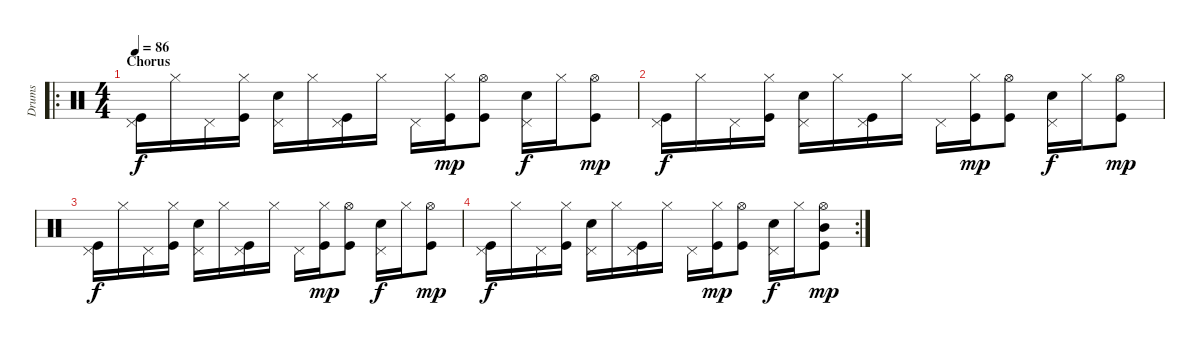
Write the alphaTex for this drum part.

\track ("Drums" "Drums") {instrument percussion}
\staff {score}
\articulation defaults
\ro
\ts (4 4)
\section ("" "Chorus")
\tempo 86
\clef neutral
\ks c
("Pedal Hi-Hat (hit)" "Kick (hit)").16{dy f} "Hi-Hat (closed)".16 "Pedal Hi-Hat (hit)".16 ("Hi-Hat (closed)" "Kick (hit)").16 ("Pedal Hi-Hat (hit)" "Electric Snare (hit)").16 "Hi-Hat (closed)".16 ("Pedal Hi-Hat (hit)" "Kick (hit)").16 "Hi-Hat (closed)".16 "Pedal Hi-Hat (hit)".16 ("Hi-Hat (closed)" "Kick (hit)").16{dy mp} ("Hi-Hat (open)" "Kick (hit)").8 ("Pedal Hi-Hat (hit)" "Electric Snare (hit)").16{dy f} "Hi-Hat (closed)".16 ("Hi-Hat (open)" "Kick (hit)").8{dy mp} |
("Pedal Hi-Hat (hit)" "Kick (hit)").16{dy f} "Hi-Hat (closed)".16 "Pedal Hi-Hat (hit)".16 ("Hi-Hat (closed)" "Kick (hit)").16 ("Pedal Hi-Hat (hit)" "Electric Snare (hit)").16 "Hi-Hat (closed)".16 ("Pedal Hi-Hat (hit)" "Kick (hit)").16 "Hi-Hat (closed)".16 "Pedal Hi-Hat (hit)".16 ("Hi-Hat (closed)" "Kick (hit)").16{dy mp} ("Hi-Hat (open)" "Kick (hit)").8 ("Pedal Hi-Hat (hit)" "Electric Snare (hit)").16{dy f} "Hi-Hat (closed)".16 ("Hi-Hat (open)" "Kick (hit)").8{dy mp} |
("Pedal Hi-Hat (hit)" "Kick (hit)").16{dy f} "Hi-Hat (closed)".16 "Pedal Hi-Hat (hit)".16 ("Hi-Hat (closed)" "Kick (hit)").16 ("Pedal Hi-Hat (hit)" "Electric Snare (hit)").16 "Hi-Hat (closed)".16 ("Pedal Hi-Hat (hit)" "Kick (hit)").16 "Hi-Hat (closed)".16 "Pedal Hi-Hat (hit)".16 ("Hi-Hat (closed)" "Kick (hit)").16{dy mp} ("Hi-Hat (open)" "Kick (hit)").8 ("Pedal Hi-Hat (hit)" "Electric Snare (hit)").16{dy f} "Hi-Hat (closed)".16 ("Hi-Hat (open)" "Kick (hit)").8{dy mp} |
\rc 2
("Pedal Hi-Hat (hit)" "Kick (hit)").16{dy f} "Hi-Hat (closed)".16 "Pedal Hi-Hat (hit)".16 ("Hi-Hat (closed)" "Kick (hit)").16 ("Pedal Hi-Hat (hit)" "Electric Snare (hit)").16 "Hi-Hat (closed)".16 ("Pedal Hi-Hat (hit)" "Kick (hit)").16 "Hi-Hat (closed)".16 "Pedal Hi-Hat (hit)".16 ("Hi-Hat (closed)" "Kick (hit)").16{dy mp} ("Hi-Hat (open)" "Kick (hit)").8 ("Pedal Hi-Hat (hit)" "Electric Snare (hit)").16{dy f} "Hi-Hat (closed)".16 ("Hi-Hat (open)" "Mid Tom (hit)" "Kick (hit)").8{dy mp}
